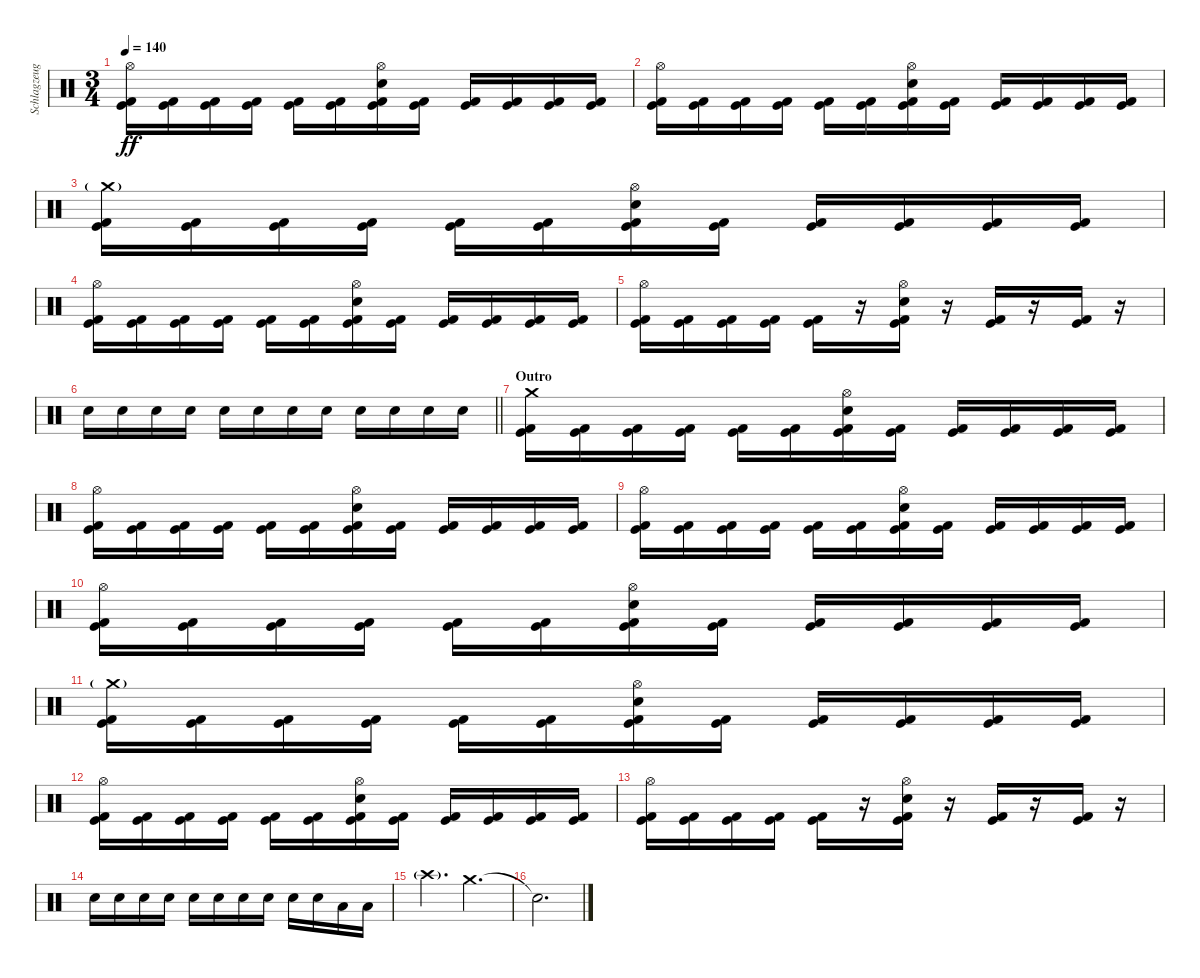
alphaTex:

\track ("Schlagzeug" "Schlagzeug") {instrument percussion}
\staff {score}
\articulation defaults
\ts (3 4)
\tempo 140
\clef neutral
\ks c
("Hi-Hat (open)" "Kick (hit)" "Kick (hit) 2").16{dy ff} ("Kick (hit)" "Kick (hit) 2").16 ("Kick (hit)" "Kick (hit) 2").16 ("Kick (hit)" "Kick (hit) 2").16 ("Kick (hit)" "Kick (hit) 2").16 ("Kick (hit)" "Kick (hit) 2").16 ("Hi-Hat (open)" "Kick (hit)" "Kick (hit) 2" "Electric Snare (hit)").16 ("Kick (hit)" "Kick (hit) 2").16 ("Kick (hit)" "Kick (hit) 2").16 ("Kick (hit)" "Kick (hit) 2").16 ("Kick (hit)" "Kick (hit) 2").16 ("Kick (hit)" "Kick (hit) 2").16 |
("Hi-Hat (open)" "Kick (hit)" "Kick (hit) 2").16 ("Kick (hit)" "Kick (hit) 2").16 ("Kick (hit)" "Kick (hit) 2").16 ("Kick (hit)" "Kick (hit) 2").16 ("Kick (hit)" "Kick (hit) 2").16 ("Kick (hit)" "Kick (hit) 2").16 ("Hi-Hat (open)" "Kick (hit)" "Kick (hit) 2" "Electric Snare (hit)").16 ("Kick (hit)" "Kick (hit) 2").16 ("Kick (hit)" "Kick (hit) 2").16 ("Kick (hit)" "Kick (hit) 2").16 ("Kick (hit)" "Kick (hit) 2").16 ("Kick (hit)" "Kick (hit) 2").16 |
("Crash medium (hit)"{g} "Kick (hit)" "Kick (hit) 2").16 ("Kick (hit)" "Kick (hit) 2").16 ("Kick (hit)" "Kick (hit) 2").16 ("Kick (hit)" "Kick (hit) 2").16 ("Kick (hit)" "Kick (hit) 2").16 ("Kick (hit)" "Kick (hit) 2").16 ("Hi-Hat (open)" "Kick (hit)" "Kick (hit) 2" "Electric Snare (hit)").16 ("Kick (hit)" "Kick (hit) 2").16 ("Kick (hit)" "Kick (hit) 2").16 ("Kick (hit)" "Kick (hit) 2").16 ("Kick (hit)" "Kick (hit) 2").16 ("Kick (hit)" "Kick (hit) 2").16 |
("Hi-Hat (open)" "Kick (hit)" "Kick (hit) 2").16 ("Kick (hit)" "Kick (hit) 2").16 ("Kick (hit)" "Kick (hit) 2").16 ("Kick (hit)" "Kick (hit) 2").16 ("Kick (hit)" "Kick (hit) 2").16 ("Kick (hit)" "Kick (hit) 2").16 ("Hi-Hat (open)" "Kick (hit)" "Kick (hit) 2" "Electric Snare (hit)").16 ("Kick (hit)" "Kick (hit) 2").16 ("Kick (hit)" "Kick (hit) 2").16 ("Kick (hit)" "Kick (hit) 2").16 ("Kick (hit)" "Kick (hit) 2").16 ("Kick (hit)" "Kick (hit) 2").16 |
("Hi-Hat (open)" "Kick (hit)" "Kick (hit) 2").16 ("Kick (hit)" "Kick (hit) 2").16 ("Kick (hit)" "Kick (hit) 2").16 ("Kick (hit)" "Kick (hit) 2").16 ("Kick (hit)" "Kick (hit) 2").16 r.16 ("Hi-Hat (open)" "Kick (hit)" "Kick (hit) 2" "Electric Snare (hit)").16 r.16 ("Kick (hit)" "Kick (hit) 2").16 r.16 ("Kick (hit)" "Kick (hit) 2").16 r.16 |
\barLineRight lightlight "Electric Snare (hit)".16 "Electric Snare (hit)".16 "Electric Snare (hit)".16 "Electric Snare (hit)".16 "Electric Snare (hit)".16 "Electric Snare (hit)".16 "Snare (hit) 2".16 "Snare (hit) 2".16 "Snare (hit) 2".16 "Snare (hit) 2".16 "Snare (hit) 2".16 "Snare (hit) 2".16
|
\section ("" "Outro")
("Crash medium (hit)" "Kick (hit)" "Kick (hit) 2").16 ("Kick (hit)" "Kick (hit) 2").16 ("Kick (hit)" "Kick (hit) 2").16 ("Kick (hit)" "Kick (hit) 2").16 ("Kick (hit)" "Kick (hit) 2").16 ("Kick (hit)" "Kick (hit) 2").16 ("Hi-Hat (open)" "Kick (hit)" "Kick (hit) 2" "Electric Snare (hit)").16 ("Kick (hit)" "Kick (hit) 2").16 ("Kick (hit)" "Kick (hit) 2").16 ("Kick (hit)" "Kick (hit) 2").16 ("Kick (hit)" "Kick (hit) 2").16 ("Kick (hit)" "Kick (hit) 2").16 |
("Hi-Hat (open)" "Kick (hit)" "Kick (hit) 2").16 ("Kick (hit)" "Kick (hit) 2").16 ("Kick (hit)" "Kick (hit) 2").16 ("Kick (hit)" "Kick (hit) 2").16 ("Kick (hit)" "Kick (hit) 2").16 ("Kick (hit)" "Kick (hit) 2").16 ("Hi-Hat (open)" "Kick (hit)" "Kick (hit) 2" "Electric Snare (hit)").16 ("Kick (hit)" "Kick (hit) 2").16 ("Kick (hit)" "Kick (hit) 2").16 ("Kick (hit)" "Kick (hit) 2").16 ("Kick (hit)" "Kick (hit) 2").16 ("Kick (hit)" "Kick (hit) 2").16 |
("Hi-Hat (open)" "Kick (hit)" "Kick (hit) 2").16 ("Kick (hit)" "Kick (hit) 2").16 ("Kick (hit)" "Kick (hit) 2").16 ("Kick (hit)" "Kick (hit) 2").16 ("Kick (hit)" "Kick (hit) 2").16 ("Kick (hit)" "Kick (hit) 2").16 ("Hi-Hat (open)" "Kick (hit)" "Kick (hit) 2" "Electric Snare (hit)").16 ("Kick (hit)" "Kick (hit) 2").16 ("Kick (hit)" "Kick (hit) 2").16 ("Kick (hit)" "Kick (hit) 2").16 ("Kick (hit)" "Kick (hit) 2").16 ("Kick (hit)" "Kick (hit) 2").16 |
("Hi-Hat (open)" "Kick (hit)" "Kick (hit) 2").16 ("Kick (hit)" "Kick (hit) 2").16 ("Kick (hit)" "Kick (hit) 2").16 ("Kick (hit)" "Kick (hit) 2").16 ("Kick (hit)" "Kick (hit) 2").16 ("Kick (hit)" "Kick (hit) 2").16 ("Hi-Hat (open)" "Kick (hit)" "Kick (hit) 2" "Electric Snare (hit)").16 ("Kick (hit)" "Kick (hit) 2").16 ("Kick (hit)" "Kick (hit) 2").16 ("Kick (hit)" "Kick (hit) 2").16 ("Kick (hit)" "Kick (hit) 2").16 ("Kick (hit)" "Kick (hit) 2").16 |
("Crash medium (hit)"{g} "Kick (hit)" "Kick (hit) 2").16 ("Kick (hit)" "Kick (hit) 2").16 ("Kick (hit)" "Kick (hit) 2").16 ("Kick (hit)" "Kick (hit) 2").16 ("Kick (hit)" "Kick (hit) 2").16 ("Kick (hit)" "Kick (hit) 2").16 ("Hi-Hat (open)" "Kick (hit)" "Kick (hit) 2" "Electric Snare (hit)").16 ("Kick (hit)" "Kick (hit) 2").16 ("Kick (hit)" "Kick (hit) 2").16 ("Kick (hit)" "Kick (hit) 2").16 ("Kick (hit)" "Kick (hit) 2").16 ("Kick (hit)" "Kick (hit) 2").16 |
("Hi-Hat (open)" "Kick (hit)" "Kick (hit) 2").16 ("Kick (hit)" "Kick (hit) 2").16 ("Kick (hit)" "Kick (hit) 2").16 ("Kick (hit)" "Kick (hit) 2").16 ("Kick (hit)" "Kick (hit) 2").16 ("Kick (hit)" "Kick (hit) 2").16 ("Hi-Hat (open)" "Kick (hit)" "Kick (hit) 2" "Electric Snare (hit)").16 ("Kick (hit)" "Kick (hit) 2").16 ("Kick (hit)" "Kick (hit) 2").16 ("Kick (hit)" "Kick (hit) 2").16 ("Kick (hit)" "Kick (hit) 2").16 ("Kick (hit)" "Kick (hit) 2").16 |
("Hi-Hat (open)" "Kick (hit)" "Kick (hit) 2").16 ("Kick (hit)" "Kick (hit) 2").16 ("Kick (hit)" "Kick (hit) 2").16 ("Kick (hit)" "Kick (hit) 2").16 ("Kick (hit)" "Kick (hit) 2").16 r.16 ("Hi-Hat (open)" "Kick (hit)" "Kick (hit) 2" "Electric Snare (hit)").16 r.16 ("Kick (hit)" "Kick (hit) 2").16 r.16 ("Kick (hit)" "Kick (hit) 2").16 r.16 |
"Snare (hit) 2".16 "Snare (hit) 2".16 "Snare (hit) 2".16 "Snare (hit) 2".16 "Snare (hit) 2".16 "Snare (hit) 2".16 "Electric Snare (hit)".16 "Electric Snare (hit)".16 "Snare (hit) 2".16 "Snare (hit) 2".16 "Low Floor Tom (hit)".16 "Low Floor Tom (hit)".16 |
"Crash high (hit)"{g}.4{d} "Crash medium (hit)".4{d} |
"Snare (hit)"{t}.2{d}
